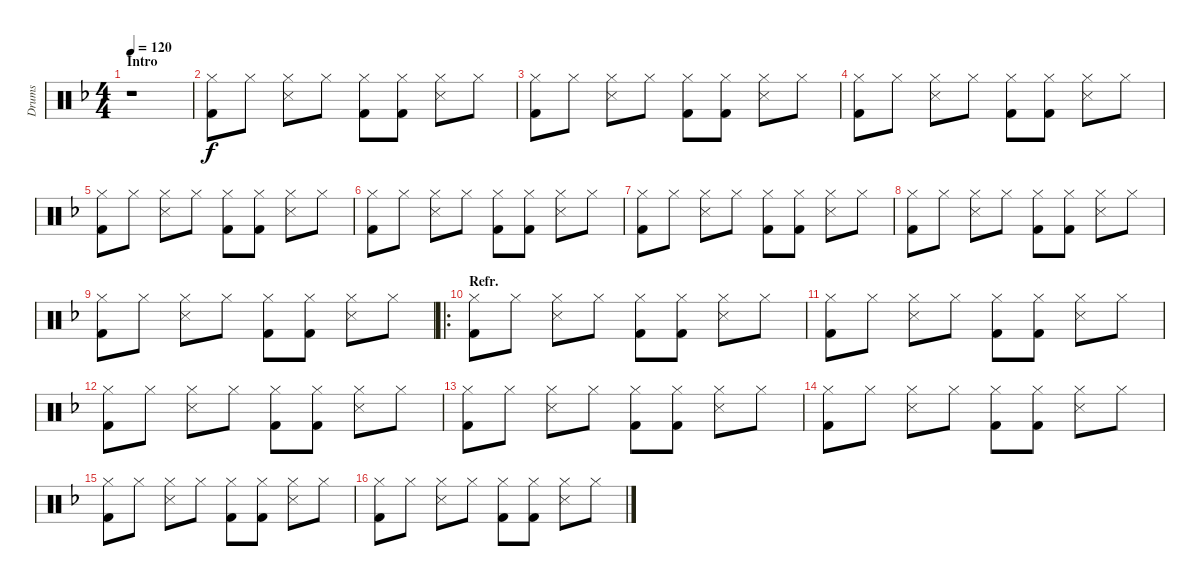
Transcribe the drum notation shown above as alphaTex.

\track ("Drums" "Drums") {instrument percussion}
\staff {score}
\articulation defaults
\ts (4 4)
\section ("" "Intro")
\tempo 120
\clef neutral
\ks f
r.1{dy f} |
("Hi-Hat (closed)" "Kick (hit) 2").8 "Hi-Hat (closed)".8 ("Hi-Hat (closed)" "Snare (side stick) 3").8 "Hi-Hat (closed)".8 ("Hi-Hat (closed)" "Kick (hit) 2").8 ("Hi-Hat (closed)" "Kick (hit) 2").8 ("Hi-Hat (closed)" "Snare (side stick) 3").8 "Hi-Hat (closed)".8 |
("Hi-Hat (closed)" "Kick (hit) 2").8 "Hi-Hat (closed)".8 ("Hi-Hat (closed)" "Snare (side stick) 3").8 "Hi-Hat (closed)".8 ("Hi-Hat (closed)" "Kick (hit) 2").8 ("Hi-Hat (closed)" "Kick (hit) 2").8 ("Hi-Hat (closed)" "Snare (side stick) 3").8 "Hi-Hat (closed)".8 |
("Hi-Hat (closed)" "Kick (hit) 2").8 "Hi-Hat (closed)".8 ("Hi-Hat (closed)" "Snare (side stick) 3").8 "Hi-Hat (closed)".8 ("Hi-Hat (closed)" "Kick (hit) 2").8 ("Hi-Hat (closed)" "Kick (hit) 2").8 ("Hi-Hat (closed)" "Snare (side stick) 3").8 "Hi-Hat (closed)".8 |
("Hi-Hat (closed)" "Kick (hit) 2").8 "Hi-Hat (closed)".8 ("Hi-Hat (closed)" "Snare (side stick) 3").8 "Hi-Hat (closed)".8 ("Hi-Hat (closed)" "Kick (hit) 2").8 ("Hi-Hat (closed)" "Kick (hit) 2").8 ("Hi-Hat (closed)" "Snare (side stick) 3").8 "Hi-Hat (closed)".8 |
("Hi-Hat (closed)" "Kick (hit) 2").8 "Hi-Hat (closed)".8 ("Hi-Hat (closed)" "Snare (side stick) 3").8 "Hi-Hat (closed)".8 ("Hi-Hat (closed)" "Kick (hit) 2").8 ("Hi-Hat (closed)" "Kick (hit) 2").8 ("Hi-Hat (closed)" "Snare (side stick) 3").8 "Hi-Hat (closed)".8 |
("Hi-Hat (closed)" "Kick (hit) 2").8 "Hi-Hat (closed)".8 ("Hi-Hat (closed)" "Snare (side stick) 3").8 "Hi-Hat (closed)".8 ("Hi-Hat (closed)" "Kick (hit) 2").8 ("Hi-Hat (closed)" "Kick (hit) 2").8 ("Hi-Hat (closed)" "Snare (side stick) 3").8 "Hi-Hat (closed)".8 |
("Hi-Hat (closed)" "Kick (hit) 2").8 "Hi-Hat (closed)".8 ("Hi-Hat (closed)" "Snare (side stick) 3").8 "Hi-Hat (closed)".8 ("Hi-Hat (closed)" "Kick (hit) 2").8 ("Hi-Hat (closed)" "Kick (hit) 2").8 ("Hi-Hat (closed)" "Snare (side stick) 3").8 "Hi-Hat (closed)".8 |
("Hi-Hat (closed)" "Kick (hit) 2").8 "Hi-Hat (closed)".8 ("Hi-Hat (closed)" "Snare (side stick) 3").8 "Hi-Hat (closed)".8 ("Hi-Hat (closed)" "Kick (hit) 2").8 ("Hi-Hat (closed)" "Kick (hit) 2").8 ("Hi-Hat (closed)" "Snare (side stick) 3").8 "Hi-Hat (closed)".8 |
\ro
\section ("" "Refr.")
("Hi-Hat (closed)" "Kick (hit) 2").8 "Hi-Hat (closed)".8 ("Hi-Hat (closed)" "Snare (side stick) 3").8 "Hi-Hat (closed)".8 ("Hi-Hat (closed)" "Kick (hit) 2").8 ("Hi-Hat (closed)" "Kick (hit) 2").8 ("Hi-Hat (closed)" "Snare (side stick) 3").8 "Hi-Hat (closed)".8 |
("Hi-Hat (closed)" "Kick (hit) 2").8 "Hi-Hat (closed)".8 ("Hi-Hat (closed)" "Snare (side stick) 3").8 "Hi-Hat (closed)".8 ("Hi-Hat (closed)" "Kick (hit) 2").8 ("Hi-Hat (closed)" "Kick (hit) 2").8 ("Hi-Hat (closed)" "Snare (side stick) 3").8 "Hi-Hat (closed)".8 |
("Hi-Hat (closed)" "Kick (hit) 2").8 "Hi-Hat (closed)".8 ("Hi-Hat (closed)" "Snare (side stick) 3").8 "Hi-Hat (closed)".8 ("Hi-Hat (closed)" "Kick (hit) 2").8 ("Hi-Hat (closed)" "Kick (hit) 2").8 ("Hi-Hat (closed)" "Snare (side stick) 3").8 "Hi-Hat (closed)".8 |
("Hi-Hat (closed)" "Kick (hit) 2").8 "Hi-Hat (closed)".8 ("Hi-Hat (closed)" "Snare (side stick) 3").8 "Hi-Hat (closed)".8 ("Hi-Hat (closed)" "Kick (hit) 2").8 ("Hi-Hat (closed)" "Kick (hit) 2").8 ("Hi-Hat (closed)" "Snare (side stick) 3").8 "Hi-Hat (closed)".8 |
("Hi-Hat (closed)" "Kick (hit) 2").8 "Hi-Hat (closed)".8 ("Hi-Hat (closed)" "Snare (side stick) 3").8 "Hi-Hat (closed)".8 ("Hi-Hat (closed)" "Kick (hit) 2").8 ("Hi-Hat (closed)" "Kick (hit) 2").8 ("Hi-Hat (closed)" "Snare (side stick) 3").8 "Hi-Hat (closed)".8 |
("Hi-Hat (closed)" "Kick (hit) 2").8 "Hi-Hat (closed)".8 ("Hi-Hat (closed)" "Snare (side stick) 3").8 "Hi-Hat (closed)".8 ("Hi-Hat (closed)" "Kick (hit) 2").8 ("Hi-Hat (closed)" "Kick (hit) 2").8 ("Hi-Hat (closed)" "Snare (side stick) 3").8 "Hi-Hat (closed)".8 |
("Hi-Hat (closed)" "Kick (hit) 2").8 "Hi-Hat (closed)".8 ("Hi-Hat (closed)" "Snare (side stick) 3").8 "Hi-Hat (closed)".8 ("Hi-Hat (closed)" "Kick (hit) 2").8 ("Hi-Hat (closed)" "Kick (hit) 2").8 ("Hi-Hat (closed)" "Snare (side stick) 3").8 "Hi-Hat (closed)".8
